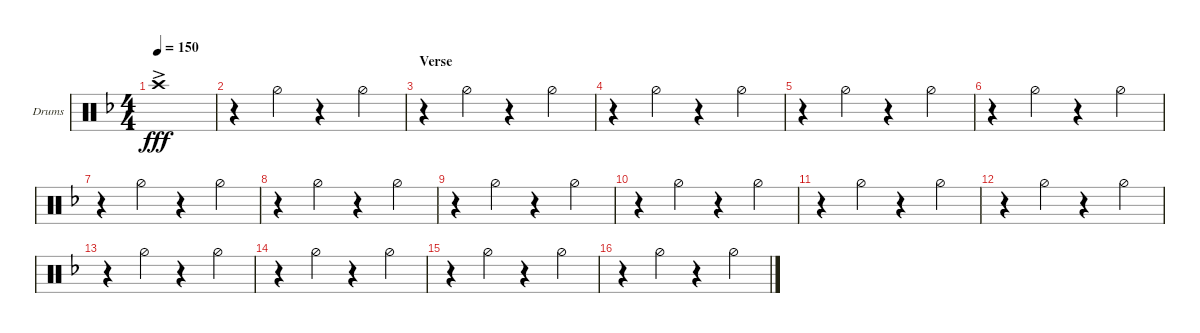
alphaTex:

\defaultSystemsLayout 4
\bracketExtendMode groupsimilarinstruments
\firstSystemTrackNameOrientation horizontal
\otherSystemsTrackNameOrientation horizontal
\track ("Drumkit" "Drums") {instrument percussion}
\staff {score}
\articulation defaults
\ts (4 4)
\tempo 150
\clef neutral
\ks f "Crash high (hit)"{ac}.1{dy fff}
|
r.4 "Hi-Hat (half)".4 r.4 "Hi-Hat (half)".4 |
\section ("" "Verse")
r.4 "Hi-Hat (half)".4 r.4 "Hi-Hat (half)".4 |
r.4 "Hi-Hat (half)".4 r.4 "Hi-Hat (half)".4 |
r.4 "Hi-Hat (half)".4 r.4 "Hi-Hat (half)".4 |
r.4 "Hi-Hat (half)".4 r.4 "Hi-Hat (half)".4 |
r.4 "Hi-Hat (half)".4 r.4 "Hi-Hat (half)".4 |
r.4 "Hi-Hat (half)".4 r.4 "Hi-Hat (half)".4 |
r.4 "Hi-Hat (half)".4 r.4 "Hi-Hat (half)".4 |
r.4 "Hi-Hat (half)".4 r.4 "Hi-Hat (half)".4 |
r.4 "Hi-Hat (half)".4 r.4 "Hi-Hat (half)".4 |
r.4 "Hi-Hat (half)".4 r.4 "Hi-Hat (half)".4 |
r.4 "Hi-Hat (half)".4 r.4 "Hi-Hat (half)".4 |
r.4 "Hi-Hat (half)".4 r.4 "Hi-Hat (half)".4 |
r.4 "Hi-Hat (half)".4 r.4 "Hi-Hat (half)".4 |
r.4 "Hi-Hat (half)".4 r.4 "Hi-Hat (half)".4
